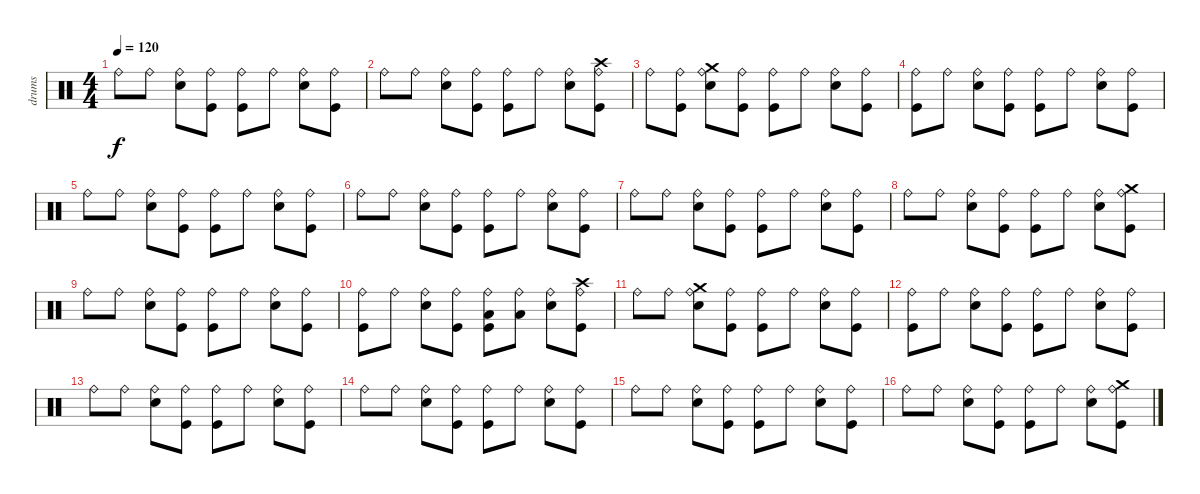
\track ("drums" "drums") {instrument percussion}
\staff {score}
\articulation defaults
\ts (4 4)
\tempo 120
\clef neutral
\ks c "Ride (bell)".8{dy f} "Ride (bell)".8
("Electric Snare (hit)" "Ride (bell)").8 ("Kick (hit)" "Ride (bell)").8 ("Kick (hit)" "Ride (bell)").8 "Ride (bell)".8 ("Electric Snare (hit)" "Ride (bell)").8 ("Kick (hit)" "Ride (bell)").8 |
"Ride (bell)".8 "Ride (bell)".8 ("Electric Snare (hit)" "Ride (bell)").8 ("Kick (hit)" "Ride (bell)").8 ("Kick (hit)" "Ride (bell)").8 "Ride (bell)".8 ("Electric Snare (hit)" "Ride (bell)").8 ("Kick (hit)" "Ride (bell)" "Crash high (hit)").8 |
"Ride (bell)".8 ("Kick (hit)" "Ride (bell)").8 ("Electric Snare (hit)" "Ride (bell)" "Crash medium (hit)").8 ("Kick (hit)" "Ride (bell)").8 ("Kick (hit)" "Ride (bell)").8 "Ride (bell)".8 ("Electric Snare (hit)" "Ride (bell)").8 ("Kick (hit)" "Ride (bell)").8 |
("Kick (hit)" "Ride (bell)").8 "Ride (bell)".8 ("Electric Snare (hit)" "Ride (bell)").8 ("Kick (hit)" "Ride (bell)").8 ("Kick (hit)" "Ride (bell)").8 "Ride (bell)".8 ("Electric Snare (hit)" "Ride (bell)").8 ("Kick (hit)" "Ride (bell)").8 |
"Ride (bell)".8 "Ride (bell)".8 ("Electric Snare (hit)" "Ride (bell)").8 ("Kick (hit)" "Ride (bell)").8 ("Kick (hit)" "Ride (bell)").8 "Ride (bell)".8 ("Electric Snare (hit)" "Ride (bell)").8 ("Kick (hit)" "Ride (bell)").8 |
"Ride (bell)".8 "Ride (bell)".8 ("Electric Snare (hit)" "Ride (bell)").8 ("Kick (hit)" "Ride (bell)").8 ("Kick (hit)" "Ride (bell)").8 "Ride (bell)".8 ("Electric Snare (hit)" "Ride (bell)").8 ("Kick (hit)" "Ride (bell)").8 |
"Ride (bell)".8 "Ride (bell)".8 ("Electric Snare (hit)" "Ride (bell)").8 ("Kick (hit)" "Ride (bell)").8 ("Kick (hit)" "Ride (bell)").8 "Ride (bell)".8 ("Electric Snare (hit)" "Ride (bell)").8 ("Kick (hit)" "Ride (bell)").8 |
"Ride (bell)".8 "Ride (bell)".8 ("Electric Snare (hit)" "Ride (bell)").8 ("Kick (hit)" "Ride (bell)").8 ("Kick (hit)" "Ride (bell)").8 "Ride (bell)".8 ("Electric Snare (hit)" "Ride (bell)").8 ("Kick (hit)" "Ride (bell)" "Crash medium (hit)").8 |
"Ride (bell)".8 "Ride (bell)".8 ("Electric Snare (hit)" "Ride (bell)").8 ("Kick (hit)" "Ride (bell)").8 ("Kick (hit)" "Ride (bell)").8 "Ride (bell)".8 ("Electric Snare (hit)" "Ride (bell)").8 ("Kick (hit)" "Ride (bell)").8 |
("Kick (hit)" "Ride (bell)").8 "Ride (bell)".8 ("Electric Snare (hit)" "Ride (bell)").8 ("Kick (hit)" "Ride (bell)").8 ("Kick (hit)" "Low Tom (hit)" "Ride (bell)").8 ("Low Tom (hit)" "Ride (bell)").8 ("Electric Snare (hit)" "Ride (bell)").8 ("Kick (hit)" "Ride (bell)" "Crash high (hit)").8 |
"Ride (bell)".8 "Ride (bell)".8 ("Electric Snare (hit)" "Ride (bell)" "Crash medium (hit)").8 ("Kick (hit)" "Ride (bell)").8 ("Kick (hit)" "Ride (bell)").8 "Ride (bell)".8 ("Electric Snare (hit)" "Ride (bell)").8 ("Kick (hit)" "Ride (bell)").8 |
("Kick (hit)" "Ride (bell)").8 "Ride (bell)".8 ("Electric Snare (hit)" "Ride (bell)").8 ("Kick (hit)" "Ride (bell)").8 ("Kick (hit)" "Ride (bell)").8 "Ride (bell)".8 ("Electric Snare (hit)" "Ride (bell)").8 ("Kick (hit)" "Ride (bell)").8 |
"Ride (bell)".8 "Ride (bell)".8 ("Electric Snare (hit)" "Ride (bell)").8 ("Kick (hit)" "Ride (bell)").8 ("Kick (hit)" "Ride (bell)").8 "Ride (bell)".8 ("Electric Snare (hit)" "Ride (bell)").8 ("Kick (hit)" "Ride (bell)").8 |
"Ride (bell)".8 "Ride (bell)".8 ("Electric Snare (hit)" "Ride (bell)").8 ("Kick (hit)" "Ride (bell)").8 ("Kick (hit)" "Ride (bell)").8 "Ride (bell)".8 ("Electric Snare (hit)" "Ride (bell)").8 ("Kick (hit)" "Ride (bell)").8 |
"Ride (bell)".8 "Ride (bell)".8 ("Electric Snare (hit)" "Ride (bell)").8 ("Kick (hit)" "Ride (bell)").8 ("Kick (hit)" "Ride (bell)").8 "Ride (bell)".8 ("Electric Snare (hit)" "Ride (bell)").8 ("Kick (hit)" "Ride (bell)").8 |
"Ride (bell)".8 "Ride (bell)".8 ("Electric Snare (hit)" "Ride (bell)").8 ("Kick (hit)" "Ride (bell)").8 ("Kick (hit)" "Ride (bell)").8 "Ride (bell)".8 ("Electric Snare (hit)" "Ride (bell)").8 ("Kick (hit)" "Ride (bell)" "Crash medium (hit)").8
